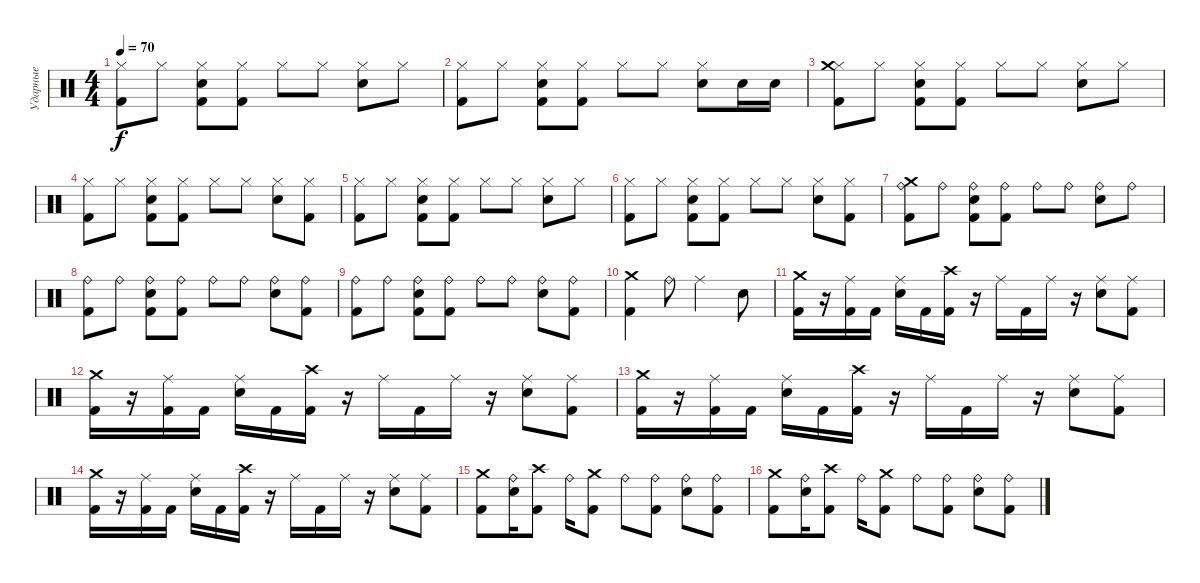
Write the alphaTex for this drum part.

\track ("Ударные" "Ударные") {instrument percussion}
\staff {score}
\articulation defaults
\ts (4 4)
\tempo 70
\clef neutral
\ks c
("Hi-Hat (closed)" "Kick (hit) 2").8{dy f} "Hi-Hat (closed)".8 ("Hi-Hat (closed)" "Kick (hit) 2" "Electric Snare (hit)").8 ("Hi-Hat (closed)" "Kick (hit) 2").8 "Hi-Hat (closed)".8 "Hi-Hat (closed)".8 ("Hi-Hat (closed)" "Electric Snare (hit)").8 "Hi-Hat (closed)".8 |
("Hi-Hat (closed)" "Kick (hit) 2").8 "Hi-Hat (closed)".8 ("Hi-Hat (closed)" "Kick (hit) 2" "Electric Snare (hit)").8 ("Hi-Hat (closed)" "Kick (hit) 2").8 "Hi-Hat (closed)".8 "Hi-Hat (closed)".8 ("Hi-Hat (closed)" "Electric Snare (hit)").8 "Electric Snare (hit)".16 "Electric Snare (hit)".16 |
("Hi-Hat (closed)" "Kick (hit) 2" "Crash medium (hit)").8 "Hi-Hat (closed)".8 ("Hi-Hat (closed)" "Kick (hit) 2" "Electric Snare (hit)").8 ("Hi-Hat (closed)" "Kick (hit) 2").8 "Hi-Hat (closed)".8 "Hi-Hat (closed)".8 ("Hi-Hat (closed)" "Electric Snare (hit)").8 "Hi-Hat (closed)".8 |
("Hi-Hat (closed)" "Kick (hit) 2").8 "Hi-Hat (closed)".8 ("Hi-Hat (closed)" "Kick (hit) 2" "Electric Snare (hit)").8 ("Hi-Hat (closed)" "Kick (hit) 2").8 "Hi-Hat (closed)".8 "Hi-Hat (closed)".8 ("Hi-Hat (closed)" "Electric Snare (hit)").8 ("Hi-Hat (closed)" "Kick (hit) 2").8 |
("Hi-Hat (closed)" "Kick (hit) 2").8 "Hi-Hat (closed)".8 ("Hi-Hat (closed)" "Kick (hit) 2" "Electric Snare (hit)").8 ("Hi-Hat (closed)" "Kick (hit) 2").8 "Hi-Hat (closed)".8 "Hi-Hat (closed)".8 ("Hi-Hat (closed)" "Electric Snare (hit)").8 "Hi-Hat (closed)".8 |
("Hi-Hat (closed)" "Kick (hit) 2").8 "Hi-Hat (closed)".8 ("Hi-Hat (closed)" "Kick (hit) 2" "Electric Snare (hit)").8 ("Hi-Hat (closed)" "Kick (hit) 2").8 "Hi-Hat (closed)".8 "Hi-Hat (closed)".8 ("Hi-Hat (closed)" "Electric Snare (hit)").8 ("Hi-Hat (closed)" "Kick (hit) 2").8 |
("Ride (bell)" "Kick (hit) 2" "Crash medium (hit)").8 "Ride (bell)".8 ("Ride (bell)" "Kick (hit) 2" "Electric Snare (hit)").8 ("Ride (bell)" "Kick (hit) 2").8 "Ride (bell)".8 "Ride (bell)".8 ("Ride (bell)" "Electric Snare (hit)").8 "Ride (bell)".8 |
("Ride (bell)" "Kick (hit) 2").8 "Ride (bell)".8 ("Ride (bell)" "Kick (hit) 2" "Electric Snare (hit)").8 ("Ride (bell)" "Kick (hit) 2").8 "Ride (bell)".8 "Ride (bell)".8 ("Ride (bell)" "Electric Snare (hit)").8 ("Ride (bell)" "Kick (hit) 2").8 |
("Ride (bell)" "Kick (hit) 2").8 "Ride (bell)".8 ("Ride (bell)" "Kick (hit) 2" "Electric Snare (hit)").8 ("Ride (bell)" "Kick (hit) 2").8 "Ride (bell)".8 "Ride (bell)".8 ("Ride (bell)" "Electric Snare (hit)").8 ("Ride (bell)" "Kick (hit) 2").8 |
("Crash medium (hit)" "Kick (hit) 2").4 "Ride (bell)".8 "Ride (middle)".2 "Electric Snare (hit)".8 |
("Crash medium (hit)" "Kick (hit) 2").16 r.16 ("Ride (middle)" "Kick (hit) 2").16 "Kick (hit) 2".16 ("Ride (middle)" "Electric Snare (hit)").16 "Kick (hit) 2".16 ("Kick (hit) 2" "Crash high (hit)").16 r.16 "Ride (middle)".16 "Kick (hit) 2".16 "Ride (middle)".16 r.16 ("Ride (middle)" "Electric Snare (hit)").8 ("Ride (middle)" "Kick (hit) 2").8 |
("Crash medium (hit)" "Kick (hit) 2").16 r.16 ("Ride (middle)" "Kick (hit) 2").16 "Kick (hit) 2".16 ("Ride (middle)" "Electric Snare (hit)").16 "Kick (hit) 2".16 ("Kick (hit) 2" "Crash high (hit)").16 r.16 "Ride (middle)".16 "Kick (hit) 2".16 "Ride (middle)".16 r.16 ("Ride (middle)" "Electric Snare (hit)").8 ("Ride (middle)" "Kick (hit) 2").8 |
("Crash medium (hit)" "Kick (hit) 2").16 r.16 ("Ride (middle)" "Kick (hit) 2").16 "Kick (hit) 2".16 ("Ride (middle)" "Electric Snare (hit)").16 "Kick (hit) 2".16 ("Kick (hit) 2" "Crash high (hit)").16 r.16 "Ride (middle)".16 "Kick (hit) 2".16 "Ride (middle)".16 r.16 ("Ride (middle)" "Electric Snare (hit)").8 ("Ride (middle)" "Kick (hit) 2").8 |
("Crash medium (hit)" "Kick (hit) 2").16 r.16 ("Ride (middle)" "Kick (hit) 2").16 "Kick (hit) 2".16 ("Ride (middle)" "Electric Snare (hit)").16 "Kick (hit) 2".16 ("Kick (hit) 2" "Crash high (hit)").16 r.16 "Ride (middle)".16 "Kick (hit) 2".16 "Ride (middle)".16 r.16 ("Ride (middle)" "Electric Snare (hit)").8 ("Ride (middle)" "Kick (hit) 2").8 |
("Kick (hit) 2" "Crash medium (hit)").8 ("Electric Snare (hit)" "Ride (bell)").16 ("Kick (hit) 2" "Crash high (hit)").8 "Ride (bell)".16 ("Kick (hit) 2" "Crash medium (hit)").8 "Ride (bell)".8 ("Kick (hit) 2" "Ride (bell)").8 ("Electric Snare (hit)" "Ride (bell)").8 ("Kick (hit) 2" "Ride (bell)").8 |
("Kick (hit) 2" "Crash medium (hit)").8 ("Electric Snare (hit)" "Ride (bell)").16 ("Kick (hit) 2" "Crash high (hit)").8 "Ride (bell)".16 ("Kick (hit) 2" "Crash medium (hit)").8 "Ride (bell)".8 ("Kick (hit) 2" "Ride (bell)").8 ("Electric Snare (hit)" "Ride (bell)").8 ("Kick (hit) 2" "Ride (bell)").8
